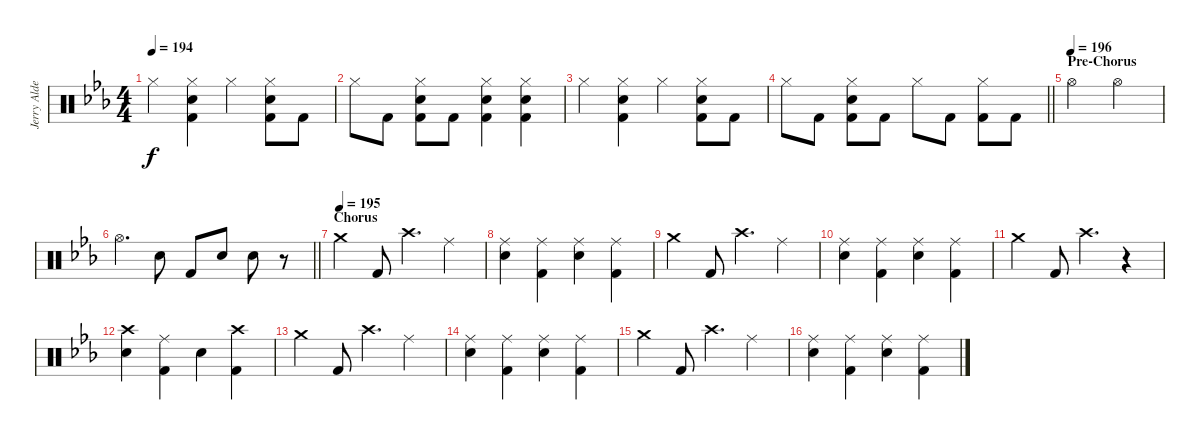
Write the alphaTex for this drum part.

\track ("Jerry Alder - Drums" "Jerry Alde") {instrument percussion}
\staff {score}
\articulation defaults
\ts (4 4)
\tempo 194
\clef neutral
\ks eb "Hi-Hat (closed)".4{dy f}
("Hi-Hat (closed)" "Snare (hit) 2" "Kick (hit) 2").4 "Hi-Hat (closed)".4 ("Hi-Hat (closed)" "Snare (hit) 2" "Kick (hit) 2").8 "Kick (hit) 2".8 |
"Hi-Hat (closed)".8 "Kick (hit) 2".8 ("Hi-Hat (closed)" "Snare (hit) 2" "Kick (hit) 2").8 "Kick (hit) 2".8 ("Hi-Hat (closed)" "Snare (hit) 2" "Kick (hit) 2").4 ("Hi-Hat (closed)" "Snare (hit) 2" "Kick (hit) 2").4 |
"Hi-Hat (closed)".4 ("Hi-Hat (closed)" "Snare (hit) 2" "Kick (hit) 2").4 "Hi-Hat (closed)".4 ("Hi-Hat (closed)" "Snare (hit) 2" "Kick (hit) 2").8 "Kick (hit) 2".8 |
\barLineRight lightlight "Hi-Hat (closed)".8 "Kick (hit) 2".8
("Hi-Hat (closed)" "Snare (hit) 2" "Kick (hit) 2").8 "Kick (hit) 2".8 "Hi-Hat (closed)".8 "Kick (hit) 2".8 ("Hi-Hat (closed)" "Kick (hit) 2").8 "Kick (hit) 2".8 |
\section ("" "Pre-Chorus")
\tempo (196)
"Hi-Hat (open)".2 "Hi-Hat (open)".2 |
\barLineRight lightlight "Hi-Hat (open)".4{d} "Snare (hit) 2".8 "Kick (hit) 2".8 "Snare (hit) 2".8 "Snare (hit) 2".8
r.8 |
\section ("" "Chorus")
\tempo (195)
"Crash medium (hit)".4{volume 15} "Kick (hit) 2".8 "Crash high (hit)".4{d} "Ride (middle)".4 |
("Ride (middle)" "Snare (hit) 2").4 ("Ride (middle)" "Kick (hit) 2").4 ("Ride (middle)" "Snare (hit) 2").4 ("Ride (middle)" "Kick (hit) 2").4 |
"Crash medium (hit)".4 "Kick (hit) 2".8 "Crash high (hit)".4{d} "Ride (middle)".4 |
("Ride (middle)" "Snare (hit) 2").4 ("Ride (middle)" "Kick (hit) 2").4 ("Ride (middle)" "Snare (hit) 2").4 ("Ride (middle)" "Kick (hit) 2").4 |
"Crash medium (hit)".4 "Kick (hit) 2".8 "Crash high (hit)".4{d} r.4 |
("Crash high (hit)" "Snare (hit) 2").4 ("Ride (middle)" "Kick (hit) 2").4 "Snare (hit) 2".4 ("Crash high (hit)" "Kick (hit) 2").4 |
"Crash medium (hit)".4 "Kick (hit) 2".8 "Crash high (hit)".4{d} "Ride (middle)".4 |
("Ride (middle)" "Snare (hit) 2").4 ("Ride (middle)" "Kick (hit) 2").4 ("Ride (middle)" "Snare (hit) 2").4 ("Ride (middle)" "Kick (hit) 2").4 |
"Crash medium (hit)".4 "Kick (hit) 2".8 "Crash high (hit)".4{d} "Ride (middle)".4 |
("Ride (middle)" "Snare (hit) 2").4 ("Ride (middle)" "Kick (hit) 2").4 ("Ride (middle)" "Snare (hit) 2").4 ("Ride (middle)" "Kick (hit) 2").4
